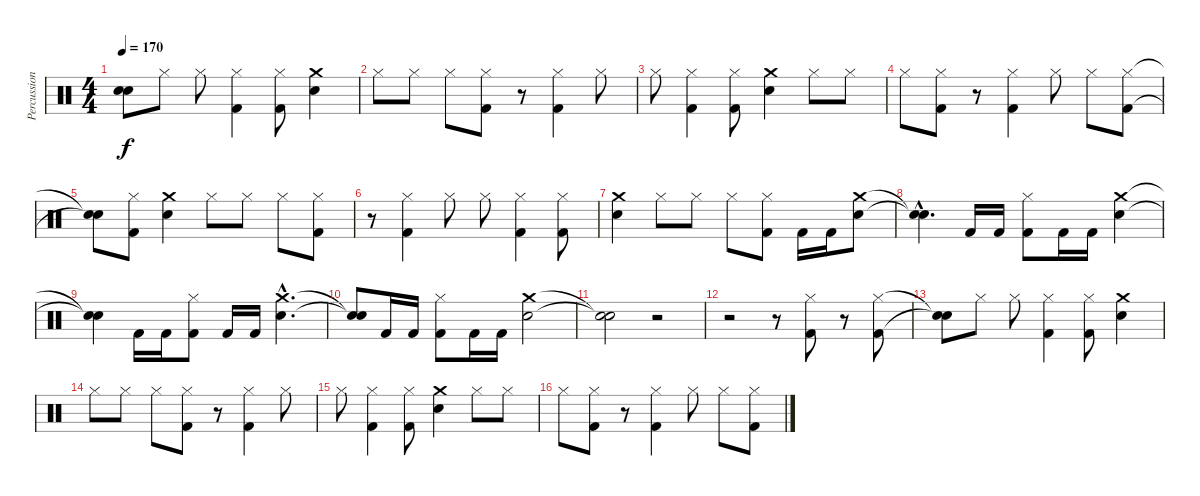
\track ("Percussions" "Percussion") {instrument percussion}
\staff {score}
\articulation defaults
\ts (4 4)
\tempo 170
\clef neutral
\ks c
("Snare (hit)"{t} "Snare (hit)"{t}).8{dy f} "Hi-Hat (closed)".8 "Hi-Hat (closed)".8 ("Hi-Hat (closed)" "Kick (hit) 2").4 ("Hi-Hat (closed)" "Kick (hit) 2").8 ("Snare (hit) 2" "Crash medium (hit)").4 |
"Hi-Hat (closed)".8 "Hi-Hat (closed)".8 "Hi-Hat (closed)".8 ("Hi-Hat (closed)" "Kick (hit) 2").8 r.8 ("Hi-Hat (closed)" "Kick (hit) 2").4 "Hi-Hat (closed)".8 |
"Hi-Hat (closed)".8 ("Hi-Hat (closed)" "Kick (hit) 2").4 ("Hi-Hat (closed)" "Kick (hit) 2").8 ("Snare (hit) 2" "Crash medium (hit)").4 "Hi-Hat (closed)".8 "Hi-Hat (closed)".8 |
"Hi-Hat (closed)".8 ("Hi-Hat (closed)" "Kick (hit) 2").8 r.8 ("Hi-Hat (closed)" "Kick (hit) 2").4 "Hi-Hat (closed)".8 "Hi-Hat (closed)".8 ("Hi-Hat (closed)" "Kick (hit) 2").8 |
("Snare (hit)"{t} "Snare (hit)"{t}).8 ("Hi-Hat (closed)" "Kick (hit) 2").8 ("Snare (hit) 2" "Crash medium (hit)").4 "Hi-Hat (closed)".8 "Hi-Hat (closed)".8 "Hi-Hat (closed)".8 ("Hi-Hat (closed)" "Kick (hit) 2").8 |
r.8 ("Hi-Hat (closed)" "Kick (hit) 2").4 "Hi-Hat (closed)".8 "Hi-Hat (closed)".8 ("Hi-Hat (closed)" "Kick (hit) 2").4 ("Hi-Hat (closed)" "Kick (hit) 2").8 |
("Snare (hit) 2" "Crash medium (hit)").4 "Hi-Hat (closed)".8 "Hi-Hat (closed)".8 "Hi-Hat (closed)".8 ("Hi-Hat (closed)" "Kick (hit) 2").8 "Kick (hit) 2".16 "Kick (hit) 2".16 ("Snare (hit) 2" "Crash medium (hit)").8 |
("Snare (hit)"{hac t} "Snare (hit)"{hac t}).4{d} "Kick (hit) 2".16 "Kick (hit) 2".16 ("Hi-Hat (closed)" "Kick (hit) 2").8 "Kick (hit) 2".16 "Kick (hit) 2".16 ("Snare (hit) 2" "Crash medium (hit)").4 |
("Snare (hit)"{t} "Snare (hit)"{t}).4 "Kick (hit) 2".16 "Kick (hit) 2".16 ("Hi-Hat (closed)" "Kick (hit) 2").8 "Kick (hit) 2".16 "Kick (hit) 2".16 ("Snare (hit) 2"{hac} "Crash medium (hit)"{hac}).4{d} |
("Snare (hit)"{t} "Snare (hit)"{t}).8 "Kick (hit) 2".16 "Kick (hit) 2".16 ("Hi-Hat (closed)" "Kick (hit) 2").8 "Kick (hit) 2".16 "Kick (hit) 2".16 ("Snare (hit) 2" "Crash medium (hit)").2 |
("Snare (hit)"{t} "Snare (hit)"{t}).2 r.2 |
r.2 r.8 ("Hi-Hat (closed)" "Kick (hit) 2").8 r.8 ("Hi-Hat (closed)" "Kick (hit) 2").8 |
("Snare (hit)"{t} "Snare (hit)"{t}).8 "Hi-Hat (closed)".8 "Hi-Hat (closed)".8 ("Hi-Hat (closed)" "Kick (hit) 2").4 ("Hi-Hat (closed)" "Kick (hit) 2").8 ("Snare (hit) 2" "Crash medium (hit)").4 |
"Hi-Hat (closed)".8 "Hi-Hat (closed)".8 "Hi-Hat (closed)".8 ("Hi-Hat (closed)" "Kick (hit) 2").8 r.8 ("Hi-Hat (closed)" "Kick (hit) 2").4 "Hi-Hat (closed)".8 |
"Hi-Hat (closed)".8 ("Hi-Hat (closed)" "Kick (hit) 2").4 ("Hi-Hat (closed)" "Kick (hit) 2").8 ("Snare (hit) 2" "Crash medium (hit)").4 "Hi-Hat (closed)".8 "Hi-Hat (closed)".8 |
"Hi-Hat (closed)".8 ("Hi-Hat (closed)" "Kick (hit) 2").8 r.8 ("Hi-Hat (closed)" "Kick (hit) 2").4 "Hi-Hat (closed)".8 "Hi-Hat (closed)".8 ("Hi-Hat (closed)" "Kick (hit) 2").8
